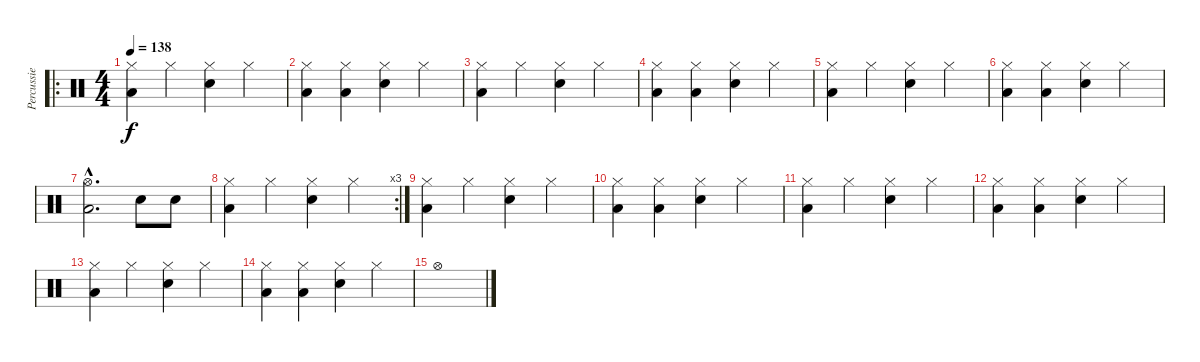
\track ("Percussie" "Percussie") {instrument percussion}
\staff {score}
\articulation defaults
\ro
\ts (4 4)
\tempo 138
\clef neutral
\ks c
("Hi-Hat (closed)" "Low Floor Tom (hit)").4{dy f} "Hi-Hat (closed)".4 ("Hi-Hat (closed)" "Snare (hit) 2").4 "Hi-Hat (closed)".4 |
("Hi-Hat (closed)" "Low Floor Tom (hit)").4 ("Hi-Hat (closed)" "Low Floor Tom (hit)").4 ("Hi-Hat (closed)" "Snare (hit) 2").4 "Hi-Hat (closed)".4 |
("Hi-Hat (closed)" "Low Floor Tom (hit)").4 "Hi-Hat (closed)".4 ("Hi-Hat (closed)" "Snare (hit) 2").4 "Hi-Hat (closed)".4 |
("Hi-Hat (closed)" "Low Floor Tom (hit)").4 ("Hi-Hat (closed)" "Low Floor Tom (hit)").4 ("Hi-Hat (closed)" "Snare (hit) 2").4 "Hi-Hat (closed)".4 |
("Hi-Hat (closed)" "Low Floor Tom (hit)").4 "Hi-Hat (closed)".4 ("Hi-Hat (closed)" "Snare (hit) 2").4 "Hi-Hat (closed)".4 |
("Hi-Hat (closed)" "Low Floor Tom (hit)").4 ("Hi-Hat (closed)" "Low Floor Tom (hit)").4 ("Hi-Hat (closed)" "Snare (hit) 2").4 "Hi-Hat (closed)".4 |
("Hi-Hat (open)"{hac} "Low Floor Tom (hit)"{hac}).2{d} "Snare (hit) 2".8 "Snare (hit) 2".8 |
\rc 3
("Hi-Hat (closed)" "Low Floor Tom (hit)").4 "Hi-Hat (closed)".4 ("Hi-Hat (closed)" "Snare (hit) 2").4 "Hi-Hat (closed)".4 |
("Hi-Hat (closed)" "Low Floor Tom (hit)").4 "Hi-Hat (closed)".4 ("Hi-Hat (closed)" "Snare (hit) 2").4 "Hi-Hat (closed)".4 |
("Hi-Hat (closed)" "Low Floor Tom (hit)").4 ("Hi-Hat (closed)" "Low Floor Tom (hit)").4 ("Hi-Hat (closed)" "Snare (hit) 2").4 "Hi-Hat (closed)".4 |
("Hi-Hat (closed)" "Low Floor Tom (hit)").4 "Hi-Hat (closed)".4 ("Hi-Hat (closed)" "Snare (hit) 2").4 "Hi-Hat (closed)".4 |
("Hi-Hat (closed)" "Low Floor Tom (hit)").4 ("Hi-Hat (closed)" "Low Floor Tom (hit)").4 ("Hi-Hat (closed)" "Snare (hit) 2").4 "Hi-Hat (closed)".4 |
("Hi-Hat (closed)" "Low Floor Tom (hit)").4 "Hi-Hat (closed)".4 ("Hi-Hat (closed)" "Snare (hit) 2").4 "Hi-Hat (closed)".4 |
("Hi-Hat (closed)" "Low Floor Tom (hit)").4 ("Hi-Hat (closed)" "Low Floor Tom (hit)").4 ("Hi-Hat (closed)" "Snare (hit) 2").4 "Hi-Hat (closed)".4 |
"Hi-Hat (open)".1
